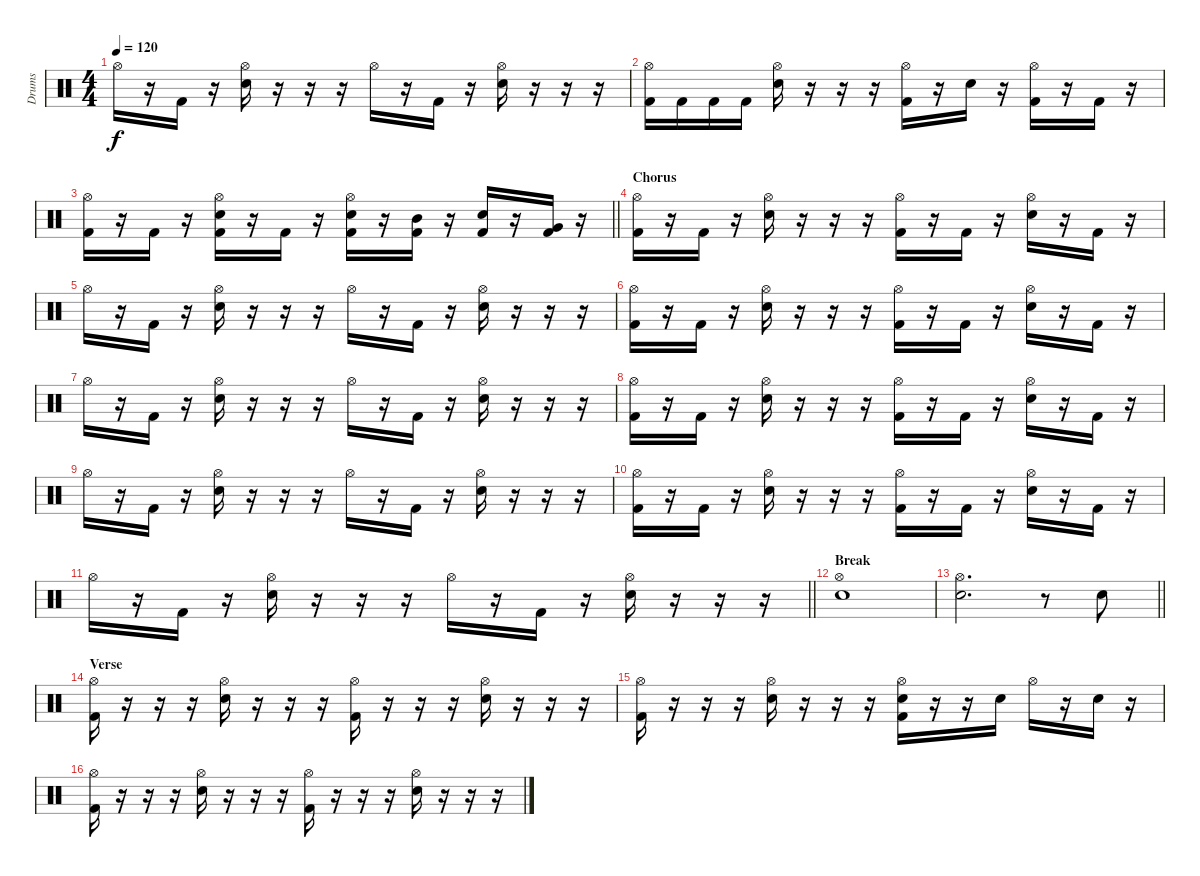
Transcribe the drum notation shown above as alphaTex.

\track ("Drums" "Drums") {instrument percussion}
\staff {score}
\articulation defaults
\ts (4 4)
\tempo 120
\clef neutral
\ks c "Hi-Hat (open)".16{dy f}
r.16 "Kick (hit) 2".16 r.16 ("Hi-Hat (open)" "Snare (hit) 2").16 r.16 r.16 r.16 "Hi-Hat (open)".16 r.16 "Kick (hit) 2".16 r.16 ("Hi-Hat (open)" "Snare (hit) 2").16 r.16 r.16 r.16 |
("Hi-Hat (open)" "Kick (hit) 2").16 "Kick (hit) 2".16 "Kick (hit) 2".16 "Kick (hit) 2".16 ("Hi-Hat (open)" "Snare (hit) 2").16 r.16 r.16 r.16 ("Hi-Hat (open)" "Kick (hit) 2").16 r.16 "Snare (hit) 2".16 r.16 ("Hi-Hat (open)" "Kick (hit) 2").16 r.16 "Kick (hit) 2".16 r.16 |
\barLineRight lightlight
("Hi-Hat (open)" "Kick (hit) 2").16 r.16 "Kick (hit) 2".16 r.16 ("Hi-Hat (open)" "Snare (hit) 2" "Kick (hit) 2").16 r.16 "Kick (hit) 2".16 r.16 ("Hi-Hat (open)" "Snare (hit) 2" "Kick (hit) 2").16 r.16 ("Mid Tom (hit)" "Kick (hit) 2").16 r.16 ("Snare (hit) 2" "Kick (hit) 2").16 r.16 ("Very Low Tom (hit)" "Kick (hit) 2").16 r.16 |
\section ("" "Chorus")
("Hi-Hat (open)" "Kick (hit) 2").16 r.16 "Kick (hit) 2".16 r.16 ("Hi-Hat (open)" "Snare (hit) 2").16 r.16 r.16 r.16 ("Hi-Hat (open)" "Kick (hit) 2").16 r.16 "Kick (hit) 2".16 r.16 ("Hi-Hat (open)" "Snare (hit) 2").16 r.16 "Kick (hit) 2".16 r.16 |
"Hi-Hat (open)".16 r.16 "Kick (hit) 2".16 r.16 ("Hi-Hat (open)" "Snare (hit) 2").16 r.16 r.16 r.16 "Hi-Hat (open)".16 r.16 "Kick (hit) 2".16 r.16 ("Hi-Hat (open)" "Snare (hit) 2").16 r.16 r.16 r.16 |
("Hi-Hat (open)" "Kick (hit) 2").16 r.16 "Kick (hit) 2".16 r.16 ("Hi-Hat (open)" "Snare (hit) 2").16 r.16 r.16 r.16 ("Hi-Hat (open)" "Kick (hit) 2").16 r.16 "Kick (hit) 2".16 r.16 ("Hi-Hat (open)" "Snare (hit) 2").16 r.16 "Kick (hit) 2".16 r.16 |
"Hi-Hat (open)".16 r.16 "Kick (hit) 2".16 r.16 ("Hi-Hat (open)" "Snare (hit) 2").16 r.16 r.16 r.16 "Hi-Hat (open)".16 r.16 "Kick (hit) 2".16 r.16 ("Hi-Hat (open)" "Snare (hit) 2").16 r.16 r.16 r.16 |
("Hi-Hat (open)" "Kick (hit) 2").16 r.16 "Kick (hit) 2".16 r.16 ("Hi-Hat (open)" "Snare (hit) 2").16 r.16 r.16 r.16 ("Hi-Hat (open)" "Kick (hit) 2").16 r.16 "Kick (hit) 2".16 r.16 ("Hi-Hat (open)" "Snare (hit) 2").16 r.16 "Kick (hit) 2".16 r.16 |
"Hi-Hat (open)".16 r.16 "Kick (hit) 2".16 r.16 ("Hi-Hat (open)" "Snare (hit) 2").16 r.16 r.16 r.16 "Hi-Hat (open)".16 r.16 "Kick (hit) 2".16 r.16 ("Hi-Hat (open)" "Snare (hit) 2").16 r.16 r.16 r.16 |
("Hi-Hat (open)" "Kick (hit) 2").16 r.16 "Kick (hit) 2".16 r.16 ("Hi-Hat (open)" "Snare (hit) 2").16 r.16 r.16 r.16 ("Hi-Hat (open)" "Kick (hit) 2").16 r.16 "Kick (hit) 2".16 r.16 ("Hi-Hat (open)" "Snare (hit) 2").16 r.16 "Kick (hit) 2".16 r.16 |
\barLineRight lightlight "Hi-Hat (open)".16
r.16 "Kick (hit) 2".16 r.16 ("Hi-Hat (open)" "Snare (hit) 2").16 r.16 r.16 r.16 "Hi-Hat (open)".16 r.16 "Kick (hit) 2".16 r.16 ("Hi-Hat (open)" "Snare (hit) 2").16 r.16 r.16 r.16 |
\section ("" "Break")
("Hi-Hat (open)" "Snare (hit) 2").1 |
\barLineRight lightlight
("Hi-Hat (open)" "Snare (hit) 2").2{d} r.8 "Snare (hit) 2".8 |
\section ("" "Verse")
("Hi-Hat (open)" "Kick (hit) 2").16 r.16 r.16 r.16 ("Hi-Hat (open)" "Snare (hit) 2").16 r.16 r.16 r.16 ("Hi-Hat (open)" "Kick (hit) 2").16 r.16 r.16 r.16 ("Hi-Hat (open)" "Snare (hit) 2").16 r.16 r.16 r.16 |
("Hi-Hat (open)" "Kick (hit) 2").16 r.16 r.16 r.16 ("Hi-Hat (open)" "Snare (hit) 2").16 r.16 r.16 r.16 ("Hi-Hat (open)" "Snare (hit) 2" "Kick (hit) 2").16 r.16 r.16 "Snare (hit) 2".16 "Hi-Hat (open)".16 r.16 "Snare (hit) 2".16 r.16 |
("Hi-Hat (open)" "Kick (hit) 2").16 r.16 r.16 r.16 ("Hi-Hat (open)" "Snare (hit) 2").16 r.16 r.16 r.16 ("Hi-Hat (open)" "Kick (hit) 2").16 r.16 r.16 r.16 ("Hi-Hat (open)" "Snare (hit) 2").16 r.16 r.16 r.16
